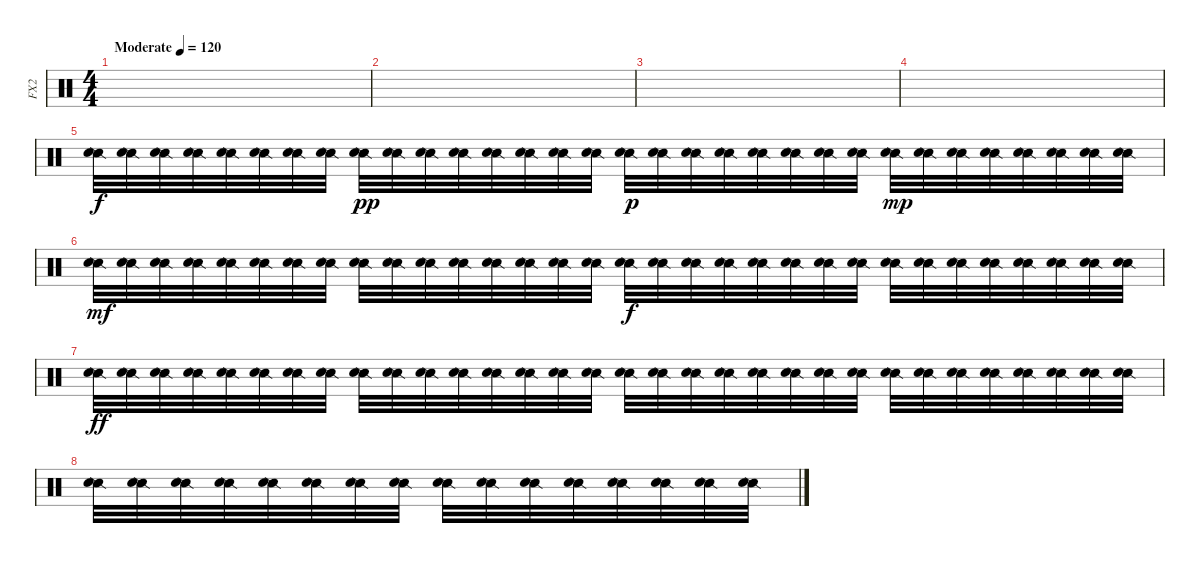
\track ("FX2" "FX2") {instrument percussion}
\staff {score}
\articulation defaults
\ts (4 4)
\tempo (120 "Moderate")
\clef neutral
\ks c
|
|
|
|
("Snare (side stick) 2" "Hand Clap (hit)").32 ("Snare (side stick) 2" "Hand Clap (hit)").32 ("Snare (side stick) 2" "Hand Clap (hit)").32 ("Snare (side stick) 2" "Hand Clap (hit)").32 ("Snare (side stick) 2" "Hand Clap (hit)").32 ("Snare (side stick) 2" "Hand Clap (hit)").32 ("Snare (side stick) 2" "Hand Clap (hit)").32 ("Snare (side stick) 2" "Hand Clap (hit)").32 ("Snare (side stick) 2" "Hand Clap (hit)").32{dy pp} ("Snare (side stick) 2" "Hand Clap (hit)").32 ("Snare (side stick) 2" "Hand Clap (hit)").32 ("Snare (side stick) 2" "Hand Clap (hit)").32 ("Snare (side stick) 2" "Hand Clap (hit)").32 ("Snare (side stick) 2" "Hand Clap (hit)").32 ("Snare (side stick) 2" "Hand Clap (hit)").32 ("Snare (side stick) 2" "Hand Clap (hit)").32 ("Snare (side stick) 2" "Hand Clap (hit)").32{dy p} ("Snare (side stick) 2" "Hand Clap (hit)").32 ("Snare (side stick) 2" "Hand Clap (hit)").32 ("Snare (side stick) 2" "Hand Clap (hit)").32 ("Snare (side stick) 2" "Hand Clap (hit)").32 ("Snare (side stick) 2" "Hand Clap (hit)").32 ("Snare (side stick) 2" "Hand Clap (hit)").32 ("Snare (side stick) 2" "Hand Clap (hit)").32 ("Snare (side stick) 2" "Hand Clap (hit)").32{dy mp} ("Snare (side stick) 2" "Hand Clap (hit)").32 ("Snare (side stick) 2" "Hand Clap (hit)").32 ("Snare (side stick) 2" "Hand Clap (hit)").32 ("Snare (side stick) 2" "Hand Clap (hit)").32 ("Snare (side stick) 2" "Hand Clap (hit)").32 ("Snare (side stick) 2" "Hand Clap (hit)").32 ("Snare (side stick) 2" "Hand Clap (hit)").32 |
("Snare (side stick) 2" "Hand Clap (hit)").32{dy mf} ("Snare (side stick) 2" "Hand Clap (hit)").32 ("Snare (side stick) 2" "Hand Clap (hit)").32 ("Snare (side stick) 2" "Hand Clap (hit)").32 ("Snare (side stick) 2" "Hand Clap (hit)").32 ("Snare (side stick) 2" "Hand Clap (hit)").32 ("Snare (side stick) 2" "Hand Clap (hit)").32 ("Snare (side stick) 2" "Hand Clap (hit)").32 ("Snare (side stick) 2" "Hand Clap (hit)").32 ("Snare (side stick) 2" "Hand Clap (hit)").32 ("Snare (side stick) 2" "Hand Clap (hit)").32 ("Snare (side stick) 2" "Hand Clap (hit)").32 ("Snare (side stick) 2" "Hand Clap (hit)").32 ("Snare (side stick) 2" "Hand Clap (hit)").32 ("Snare (side stick) 2" "Hand Clap (hit)").32 ("Snare (side stick) 2" "Hand Clap (hit)").32 ("Snare (side stick) 2" "Hand Clap (hit)").32{dy f} ("Snare (side stick) 2" "Hand Clap (hit)").32 ("Snare (side stick) 2" "Hand Clap (hit)").32 ("Snare (side stick) 2" "Hand Clap (hit)").32 ("Snare (side stick) 2" "Hand Clap (hit)").32 ("Snare (side stick) 2" "Hand Clap (hit)").32 ("Snare (side stick) 2" "Hand Clap (hit)").32 ("Snare (side stick) 2" "Hand Clap (hit)").32 ("Snare (side stick) 2" "Hand Clap (hit)").32 ("Snare (side stick) 2" "Hand Clap (hit)").32 ("Snare (side stick) 2" "Hand Clap (hit)").32 ("Snare (side stick) 2" "Hand Clap (hit)").32 ("Snare (side stick) 2" "Hand Clap (hit)").32 ("Snare (side stick) 2" "Hand Clap (hit)").32 ("Snare (side stick) 2" "Hand Clap (hit)").32 ("Snare (side stick) 2" "Hand Clap (hit)").32 |
("Snare (side stick) 2" "Hand Clap (hit)").32{dy ff} ("Snare (side stick) 2" "Hand Clap (hit)").32 ("Snare (side stick) 2" "Hand Clap (hit)").32 ("Snare (side stick) 2" "Hand Clap (hit)").32 ("Snare (side stick) 2" "Hand Clap (hit)").32 ("Snare (side stick) 2" "Hand Clap (hit)").32 ("Snare (side stick) 2" "Hand Clap (hit)").32 ("Snare (side stick) 2" "Hand Clap (hit)").32 ("Snare (side stick) 2" "Hand Clap (hit)").32 ("Snare (side stick) 2" "Hand Clap (hit)").32 ("Snare (side stick) 2" "Hand Clap (hit)").32 ("Snare (side stick) 2" "Hand Clap (hit)").32 ("Snare (side stick) 2" "Hand Clap (hit)").32 ("Snare (side stick) 2" "Hand Clap (hit)").32 ("Snare (side stick) 2" "Hand Clap (hit)").32 ("Snare (side stick) 2" "Hand Clap (hit)").32 ("Snare (side stick) 2" "Hand Clap (hit)").32 ("Snare (side stick) 2" "Hand Clap (hit)").32 ("Snare (side stick) 2" "Hand Clap (hit)").32 ("Snare (side stick) 2" "Hand Clap (hit)").32 ("Snare (side stick) 2" "Hand Clap (hit)").32 ("Snare (side stick) 2" "Hand Clap (hit)").32 ("Snare (side stick) 2" "Hand Clap (hit)").32 ("Snare (side stick) 2" "Hand Clap (hit)").32 ("Snare (side stick) 2" "Hand Clap (hit)").32 ("Snare (side stick) 2" "Hand Clap (hit)").32 ("Snare (side stick) 2" "Hand Clap (hit)").32 ("Snare (side stick) 2" "Hand Clap (hit)").32 ("Snare (side stick) 2" "Hand Clap (hit)").32 ("Snare (side stick) 2" "Hand Clap (hit)").32 ("Snare (side stick) 2" "Hand Clap (hit)").32 ("Snare (side stick) 2" "Hand Clap (hit)").32 |
("Snare (side stick) 2" "Hand Clap (hit)").32 ("Snare (side stick) 2" "Hand Clap (hit)").32 ("Snare (side stick) 2" "Hand Clap (hit)").32 ("Snare (side stick) 2" "Hand Clap (hit)").32 ("Snare (side stick) 2" "Hand Clap (hit)").32 ("Snare (side stick) 2" "Hand Clap (hit)").32 ("Snare (side stick) 2" "Hand Clap (hit)").32 ("Snare (side stick) 2" "Hand Clap (hit)").32 ("Snare (side stick) 2" "Hand Clap (hit)").32 ("Snare (side stick) 2" "Hand Clap (hit)").32 ("Snare (side stick) 2" "Hand Clap (hit)").32 ("Snare (side stick) 2" "Hand Clap (hit)").32 ("Snare (side stick) 2" "Hand Clap (hit)").32 ("Snare (side stick) 2" "Hand Clap (hit)").32 ("Snare (side stick) 2" "Hand Clap (hit)").32 ("Snare (side stick) 2" "Hand Clap (hit)").32
